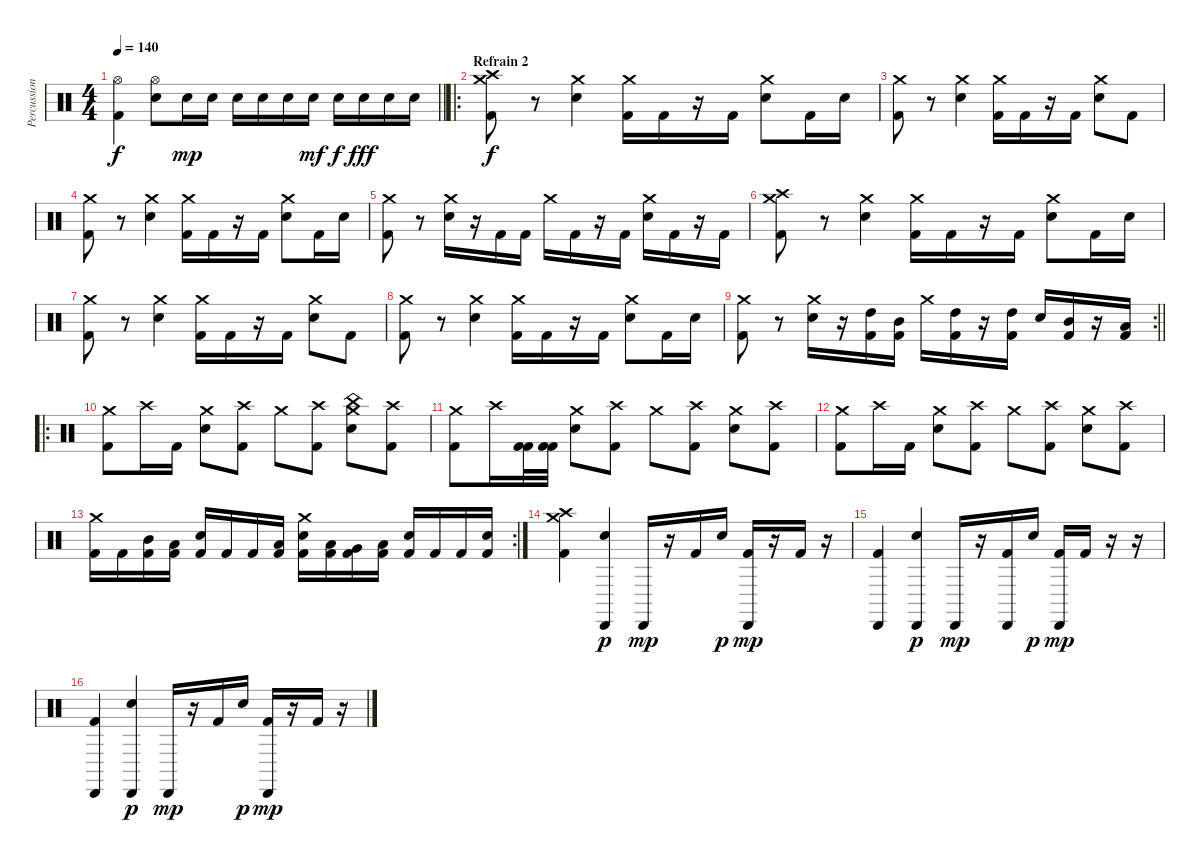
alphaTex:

\track ("Percussions" "Percussion") {instrument percussion}
\staff {score}
\articulation defaults
\ts (4 4)
\tempo 140
\clef neutral
\barLineRight lightlight
\ks c
("Hi-Hat (open)" "Kick (hit) 2").4{dy f} ("Hi-Hat (open)" "Snare (hit) 2").8 "Snare (hit) 2".16{dy mp} "Snare (hit) 2".16 "Snare (hit) 2".16 "Snare (hit) 2".16 "Snare (hit) 2".16 "Snare (hit) 2".16{dy mf} "Snare (hit) 2".16{dy f} "Snare (hit) 2".16{dy fff} "Snare (hit) 2".16 "Snare (hit) 2".16 |
\ro
\section ("" "Refrain 2")
("Crash medium (hit)" "Crash high (hit)" "Kick (hit) 2").8{dy f} r.8 ("Crash medium (hit)" "Snare (hit) 2").4 ("Crash medium (hit)" "Kick (hit) 2").16 "Kick (hit) 2".16 r.16 "Kick (hit) 2".16 ("Crash medium (hit)" "Snare (hit) 2").8 "Kick (hit) 2".16 "Snare (hit) 2".16 |
("Crash medium (hit)" "Kick (hit) 2").8 r.8 ("Crash medium (hit)" "Snare (hit) 2").4 ("Crash medium (hit)" "Kick (hit) 2").16 "Kick (hit) 2".16 r.16 "Kick (hit) 2".16 ("Crash medium (hit)" "Snare (hit) 2").8 "Kick (hit) 2".8 |
("Crash medium (hit)" "Kick (hit) 2").8 r.8 ("Crash medium (hit)" "Snare (hit) 2").4 ("Crash medium (hit)" "Kick (hit) 2").16 "Kick (hit) 2".16 r.16 "Kick (hit) 2".16 ("Crash medium (hit)" "Snare (hit) 2").8 "Kick (hit) 2".16 "Snare (hit) 2".16 |
("Crash medium (hit)" "Kick (hit) 2").8 r.8 ("Crash medium (hit)" "Snare (hit) 2").16 r.16 "Kick (hit) 2".16 "Kick (hit) 2".16 "Crash medium (hit)".16 "Kick (hit) 2".16 r.16 "Kick (hit) 2".16 ("Crash medium (hit)" "Snare (hit) 2").16 "Kick (hit) 2".16 r.16 "Kick (hit) 2".16 |
("Crash medium (hit)" "Crash high (hit)" "Kick (hit) 2").8 r.8 ("Crash medium (hit)" "Snare (hit) 2").4 ("Crash medium (hit)" "Kick (hit) 2").16 "Kick (hit) 2".16 r.16 "Kick (hit) 2".16 ("Crash medium (hit)" "Snare (hit) 2").8 "Kick (hit) 2".16 "Snare (hit) 2".16 |
("Crash medium (hit)" "Kick (hit) 2").8 r.8 ("Crash medium (hit)" "Snare (hit) 2").4 ("Crash medium (hit)" "Kick (hit) 2").16 "Kick (hit) 2".16 r.16 "Kick (hit) 2".16 ("Crash medium (hit)" "Snare (hit) 2").8 "Kick (hit) 2".8 |
("Crash medium (hit)" "Kick (hit) 2").8 r.8 ("Crash medium (hit)" "Snare (hit) 2").4 ("Crash medium (hit)" "Kick (hit) 2").16 "Kick (hit) 2".16 r.16 "Kick (hit) 2".16 ("Crash medium (hit)" "Snare (hit) 2").8 "Kick (hit) 2".16 "Snare (hit) 2".16 |
\rc 2
\barLineRight lightlight
("Crash medium (hit)" "Kick (hit) 2").8 r.8 ("Crash medium (hit)" "Snare (hit) 2").16 r.16 ("High Tom (hit)" "Kick (hit) 2").16 ("Mid Tom (hit)" "Kick (hit) 2").16 "Crash medium (hit)".16 ("High Tom (hit)" "Kick (hit) 2").16 r.16 ("High Tom (hit)" "Kick (hit) 2").16 "Snare (hit) 2".16 ("Mid Tom (hit)" "Kick (hit) 2").16 r.16 ("Low Tom (hit)" "Kick (hit) 2").16 |
\ro
\section ("" "")
("Crash medium (hit)" "Kick (hit) 2").8 "Crash high (hit)".16 "Kick (hit) 2".16 ("Crash medium (hit)" "Snare (hit) 2").8 ("Crash high (hit)" "Kick (hit) 2").8 "Crash medium (hit)".8 ("Crash high (hit)" "Kick (hit) 2").8 ("China (hit)" "Crash medium (hit)" "Snare (hit) 2").8 ("Crash high (hit)" "Kick (hit) 2").8 |
("Crash medium (hit)" "Kick (hit) 2").8 "Crash high (hit)".16 ("Kick (hit) 2" "Kick (hit) 2").32 ("Kick (hit) 2" "Kick (hit) 2").32 ("Crash medium (hit)" "Snare (hit) 2").8 ("Crash high (hit)" "Kick (hit) 2").8 "Crash medium (hit)".8 ("Crash high (hit)" "Kick (hit) 2").8 ("Crash medium (hit)" "Snare (hit) 2").8 ("Crash high (hit)" "Kick (hit) 2").8 |
("Crash medium (hit)" "Kick (hit) 2").8 "Crash high (hit)".16 "Kick (hit) 2".16 ("Crash medium (hit)" "Snare (hit) 2").8 ("Crash high (hit)" "Kick (hit) 2").8 "Crash medium (hit)".8 ("Crash high (hit)" "Kick (hit) 2").8 ("Crash medium (hit)" "Snare (hit) 2").8 ("Crash high (hit)" "Kick (hit) 2").8 |
\rc 2
("Crash medium (hit)" "Kick (hit) 2").16 "Kick (hit) 2".16 ("Mid Tom (hit)" "Kick (hit) 2").16 ("Low Tom (hit)" "Kick (hit) 2").16 ("Snare (hit) 2" "Kick (hit) 2").16 "Kick (hit) 2".16 "Kick (hit) 2".16 ("Low Tom (hit)" "Kick (hit) 2").16 ("Crash medium (hit)" "Snare (hit) 2" "Kick (hit) 2").16 ("Low Tom (hit)" "Kick (hit) 2").16 ("Very Low Tom (hit)" "Kick (hit) 2").16 ("Low Floor Tom (hit)" "Kick (hit) 2").16 ("Snare (hit) 2" "Kick (hit) 2").16 "Kick (hit) 2".16 "Kick (hit) 2".16 ("Snare (hit) 2" "Kick (hit) 2").16 |
("Crash high (hit)" "Crash medium (hit)" "Kick (hit) 2").4 ("Cabasa (hit)" "Snare (hit) 2").4{dy p} "Cabasa (hit)".16{dy mp} r.16 "Kick (hit) 2".16 "Snare (hit) 2".16{dy p} ("Cabasa (hit)" "Kick (hit) 2").16{dy mp} r.16 "Kick (hit) 2".16 r.16 |
("Cabasa (hit)" "Kick (hit) 2").4 ("Cabasa (hit)" "Snare (hit) 2").4{dy p} "Cabasa (hit)".16{dy mp} r.16 ("Cabasa (hit)" "Kick (hit) 2").16 "Snare (hit) 2".16{dy p} ("Cabasa (hit)" "Kick (hit) 2").16{dy mp} "Kick (hit) 2".16 r.16 r.16 |
("Cabasa (hit)" "Kick (hit) 2").4 ("Cabasa (hit)" "Snare (hit) 2").4{dy p} "Cabasa (hit)".16{dy mp} r.16 "Kick (hit) 2".16 "Snare (hit) 2".16{dy p} ("Cabasa (hit)" "Kick (hit) 2").16{dy mp} r.16 "Kick (hit) 2".16 r.16
